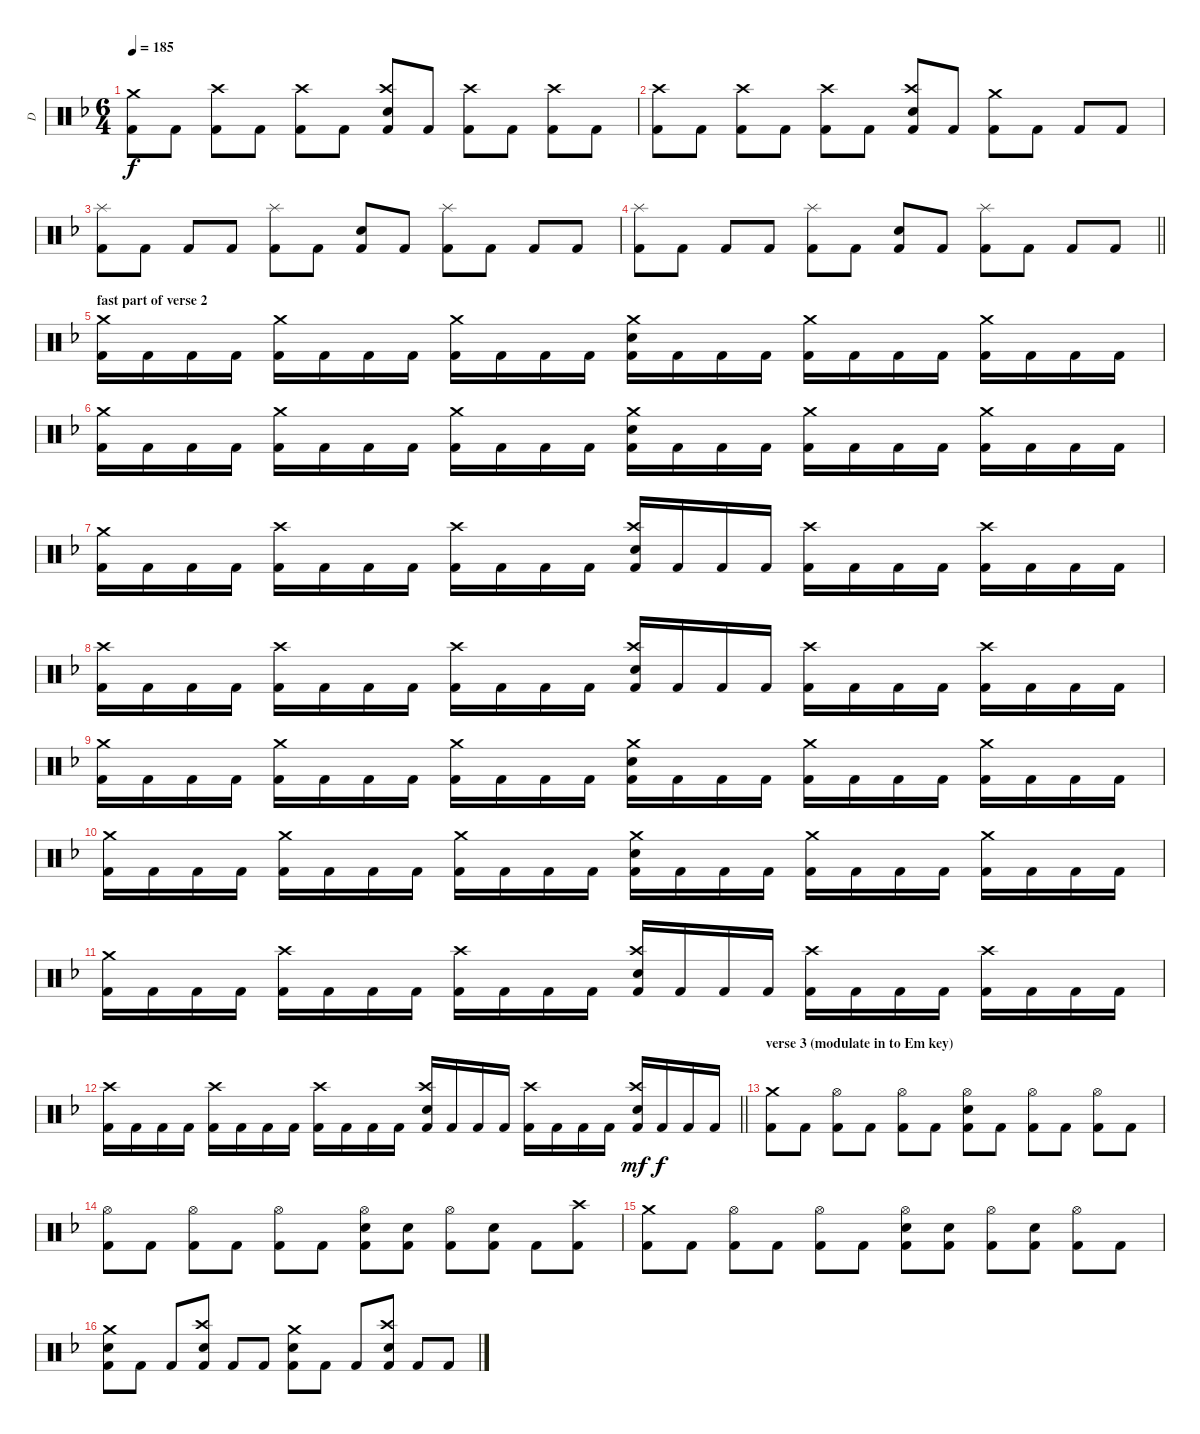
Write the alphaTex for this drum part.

\track ("D" "D") {instrument percussion}
\staff {score}
\articulation defaults
\ts (6 4)
\tempo 185
\clef neutral
\ks dminor
("Crash medium (hit)" "Kick (hit) 2").8{dy f} "Kick (hit) 2".8 ("Crash high (hit)" "Kick (hit) 2").8 "Kick (hit) 2".8 ("Crash high (hit)" "Kick (hit) 2").8 "Kick (hit) 2".8 ("Crash high (hit)" "Snare (hit) 2" "Kick (hit) 2").8 "Kick (hit) 2".8 ("Crash high (hit)" "Kick (hit) 2").8 "Kick (hit) 2".8 ("Crash high (hit)" "Kick (hit) 2").8 "Kick (hit) 2".8 |
("Crash high (hit)" "Kick (hit) 2").8 "Kick (hit) 2".8 ("Crash high (hit)" "Kick (hit) 2").8 "Kick (hit) 2".8 ("Crash high (hit)" "Kick (hit) 2").8 "Kick (hit) 2".8 ("Crash high (hit)" "Snare (hit) 2" "Kick (hit) 2").8 "Kick (hit) 2".8 ("Crash medium (hit)" "Kick (hit) 2").8 "Kick (hit) 2".8 "Kick (hit) 2".8 "Kick (hit) 2".8 |
("Splash (hit)" "Kick (hit) 2").8 "Kick (hit) 2".8 "Kick (hit) 2".8 "Kick (hit) 2".8 ("Splash (hit)" "Kick (hit) 2").8 "Kick (hit) 2".8 ("Snare (hit) 2" "Kick (hit) 2").8 "Kick (hit) 2".8 ("Splash (hit)" "Kick (hit) 2").8 "Kick (hit) 2".8 "Kick (hit) 2".8 "Kick (hit) 2".8 |
\barLineRight lightlight
("Splash (hit)" "Kick (hit) 2").8 "Kick (hit) 2".8 "Kick (hit) 2".8 "Kick (hit) 2".8 ("Splash (hit)" "Kick (hit) 2").8 "Kick (hit) 2".8 ("Snare (hit) 2" "Kick (hit) 2").8 "Kick (hit) 2".8 ("Splash (hit)" "Kick (hit) 2").8 "Kick (hit) 2".8 "Kick (hit) 2".8 "Kick (hit) 2".8 |
\section ("" "fast part of verse 2")
("Crash medium (hit)" "Kick (hit) 2").16 "Kick (hit) 2".16 "Kick (hit) 2".16 "Kick (hit) 2".16 ("Crash medium (hit)" "Kick (hit) 2").16 "Kick (hit) 2".16 "Kick (hit) 2".16 "Kick (hit) 2".16 ("Crash medium (hit)" "Kick (hit) 2").16 "Kick (hit) 2".16 "Kick (hit) 2".16 "Kick (hit) 2".16 ("Crash medium (hit)" "Snare (hit) 2" "Kick (hit) 2").16 "Kick (hit) 2".16 "Kick (hit) 2".16 "Kick (hit) 2".16 ("Crash medium (hit)" "Kick (hit) 2").16 "Kick (hit) 2".16 "Kick (hit) 2".16 "Kick (hit) 2".16 ("Crash medium (hit)" "Kick (hit) 2").16 "Kick (hit) 2".16 "Kick (hit) 2".16 "Kick (hit) 2".16 |
("Crash medium (hit)" "Kick (hit) 2").16 "Kick (hit) 2".16 "Kick (hit) 2".16 "Kick (hit) 2".16 ("Crash medium (hit)" "Kick (hit) 2").16 "Kick (hit) 2".16 "Kick (hit) 2".16 "Kick (hit) 2".16 ("Crash medium (hit)" "Kick (hit) 2").16 "Kick (hit) 2".16 "Kick (hit) 2".16 "Kick (hit) 2".16 ("Crash medium (hit)" "Snare (hit) 2" "Kick (hit) 2").16 "Kick (hit) 2".16 "Kick (hit) 2".16 "Kick (hit) 2".16 ("Crash medium (hit)" "Kick (hit) 2").16 "Kick (hit) 2".16 "Kick (hit) 2".16 "Kick (hit) 2".16 ("Crash medium (hit)" "Kick (hit) 2").16 "Kick (hit) 2".16 "Kick (hit) 2".16 "Kick (hit) 2".16 |
("Crash medium (hit)" "Kick (hit) 2").16 "Kick (hit) 2".16 "Kick (hit) 2".16 "Kick (hit) 2".16 ("Crash high (hit)" "Kick (hit) 2").16 "Kick (hit) 2".16 "Kick (hit) 2".16 "Kick (hit) 2".16 ("Crash high (hit)" "Kick (hit) 2").16 "Kick (hit) 2".16 "Kick (hit) 2".16 "Kick (hit) 2".16 ("Crash high (hit)" "Snare (hit) 2" "Kick (hit) 2").16 "Kick (hit) 2".16 "Kick (hit) 2".16 "Kick (hit) 2".16 ("Crash high (hit)" "Kick (hit) 2").16 "Kick (hit) 2".16 "Kick (hit) 2".16 "Kick (hit) 2".16 ("Crash high (hit)" "Kick (hit) 2").16 "Kick (hit) 2".16 "Kick (hit) 2".16 "Kick (hit) 2".16 |
("Crash high (hit)" "Kick (hit) 2").16 "Kick (hit) 2".16 "Kick (hit) 2".16 "Kick (hit) 2".16 ("Crash high (hit)" "Kick (hit) 2").16 "Kick (hit) 2".16 "Kick (hit) 2".16 "Kick (hit) 2".16 ("Crash high (hit)" "Kick (hit) 2").16 "Kick (hit) 2".16 "Kick (hit) 2".16 "Kick (hit) 2".16 ("Crash high (hit)" "Snare (hit) 2" "Kick (hit) 2").16 "Kick (hit) 2".16 "Kick (hit) 2".16 "Kick (hit) 2".16 ("Crash high (hit)" "Kick (hit) 2").16 "Kick (hit) 2".16 "Kick (hit) 2".16 "Kick (hit) 2".16 ("Crash high (hit)" "Kick (hit) 2").16 "Kick (hit) 2".16 "Kick (hit) 2".16 "Kick (hit) 2".16 |
("Crash medium (hit)" "Kick (hit) 2").16 "Kick (hit) 2".16 "Kick (hit) 2".16 "Kick (hit) 2".16 ("Crash medium (hit)" "Kick (hit) 2").16 "Kick (hit) 2".16 "Kick (hit) 2".16 "Kick (hit) 2".16 ("Crash medium (hit)" "Kick (hit) 2").16 "Kick (hit) 2".16 "Kick (hit) 2".16 "Kick (hit) 2".16 ("Crash medium (hit)" "Snare (hit) 2" "Kick (hit) 2").16 "Kick (hit) 2".16 "Kick (hit) 2".16 "Kick (hit) 2".16 ("Crash medium (hit)" "Kick (hit) 2").16 "Kick (hit) 2".16 "Kick (hit) 2".16 "Kick (hit) 2".16 ("Crash medium (hit)" "Kick (hit) 2").16 "Kick (hit) 2".16 "Kick (hit) 2".16 "Kick (hit) 2".16 |
("Crash medium (hit)" "Kick (hit) 2").16 "Kick (hit) 2".16 "Kick (hit) 2".16 "Kick (hit) 2".16 ("Crash medium (hit)" "Kick (hit) 2").16 "Kick (hit) 2".16 "Kick (hit) 2".16 "Kick (hit) 2".16 ("Crash medium (hit)" "Kick (hit) 2").16 "Kick (hit) 2".16 "Kick (hit) 2".16 "Kick (hit) 2".16 ("Crash medium (hit)" "Snare (hit) 2" "Kick (hit) 2").16 "Kick (hit) 2".16 "Kick (hit) 2".16 "Kick (hit) 2".16 ("Crash medium (hit)" "Kick (hit) 2").16 "Kick (hit) 2".16 "Kick (hit) 2".16 "Kick (hit) 2".16 ("Crash medium (hit)" "Kick (hit) 2").16 "Kick (hit) 2".16 "Kick (hit) 2".16 "Kick (hit) 2".16 |
("Crash medium (hit)" "Kick (hit) 2").16 "Kick (hit) 2".16 "Kick (hit) 2".16 "Kick (hit) 2".16 ("Crash high (hit)" "Kick (hit) 2").16 "Kick (hit) 2".16 "Kick (hit) 2".16 "Kick (hit) 2".16 ("Crash high (hit)" "Kick (hit) 2").16 "Kick (hit) 2".16 "Kick (hit) 2".16 "Kick (hit) 2".16 ("Crash high (hit)" "Snare (hit) 2" "Kick (hit) 2").16 "Kick (hit) 2".16 "Kick (hit) 2".16 "Kick (hit) 2".16 ("Crash high (hit)" "Kick (hit) 2").16 "Kick (hit) 2".16 "Kick (hit) 2".16 "Kick (hit) 2".16 ("Crash high (hit)" "Kick (hit) 2").16 "Kick (hit) 2".16 "Kick (hit) 2".16 "Kick (hit) 2".16 |
\barLineRight lightlight
("Crash high (hit)" "Kick (hit) 2").16 "Kick (hit) 2".16 "Kick (hit) 2".16 "Kick (hit) 2".16 ("Crash high (hit)" "Kick (hit) 2").16 "Kick (hit) 2".16 "Kick (hit) 2".16 "Kick (hit) 2".16 ("Crash high (hit)" "Kick (hit) 2").16 "Kick (hit) 2".16 "Kick (hit) 2".16 "Kick (hit) 2".16 ("Crash high (hit)" "Snare (hit) 2" "Kick (hit) 2").16 "Kick (hit) 2".16 "Kick (hit) 2".16 "Kick (hit) 2".16 ("Crash high (hit)" "Kick (hit) 2").16 "Kick (hit) 2".16 "Kick (hit) 2".16 "Kick (hit) 2".16 ("Crash high (hit)" "Snare (hit) 2" "Kick (hit) 2").16{dy mf} "Kick (hit) 2".16{dy f} "Kick (hit) 2".16 "Kick (hit) 2".16 |
\section ("" "verse 3 (modulate in to Em key)")
("Crash medium (hit)" "Kick (hit) 2").8 "Kick (hit) 2".8 ("Hi-Hat (open)" "Kick (hit) 2").8 "Kick (hit) 2".8 ("Hi-Hat (open)" "Kick (hit) 2").8 "Kick (hit) 2".8 ("Hi-Hat (open)" "Snare (hit) 2" "Kick (hit) 2").8 "Kick (hit) 2".8 ("Hi-Hat (open)" "Kick (hit) 2").8 "Kick (hit) 2".8 ("Hi-Hat (open)" "Kick (hit) 2").8 "Kick (hit) 2".8 |
("Hi-Hat (open)" "Kick (hit) 2").8 "Kick (hit) 2".8 ("Hi-Hat (open)" "Kick (hit) 2").8 "Kick (hit) 2".8 ("Hi-Hat (open)" "Kick (hit) 2").8 "Kick (hit) 2".8 ("Hi-Hat (open)" "Snare (hit) 2" "Kick (hit) 2").8 ("Snare (hit) 2" "Kick (hit) 2").8 ("Hi-Hat (open)" "Kick (hit) 2").8 ("Snare (hit) 2" "Kick (hit) 2").8 "Kick (hit) 2".8 ("Crash high (hit)" "Kick (hit) 2").8 |
("Crash medium (hit)" "Kick (hit) 2").8 "Kick (hit) 2".8 ("Hi-Hat (open)" "Kick (hit) 2").8 "Kick (hit) 2".8 ("Hi-Hat (open)" "Kick (hit) 2").8 "Kick (hit) 2".8 ("Hi-Hat (open)" "Snare (hit) 2" "Kick (hit) 2").8 ("Snare (hit) 2" "Kick (hit) 2").8 ("Hi-Hat (open)" "Kick (hit) 2").8 ("Snare (hit) 2" "Kick (hit) 2").8 ("Hi-Hat (open)" "Kick (hit) 2").8 "Kick (hit) 2".8 |
("Crash medium (hit)" "Snare (hit) 2" "Kick (hit) 2").8 "Kick (hit) 2".8 "Kick (hit) 2".8 ("Crash high (hit)" "Snare (hit) 2" "Kick (hit) 2").8 "Kick (hit) 2".8 "Kick (hit) 2".8 ("Crash medium (hit)" "Snare (hit) 2" "Kick (hit) 2").8 "Kick (hit) 2".8 "Kick (hit) 2".8 ("Crash high (hit)" "Snare (hit) 2" "Kick (hit) 2").8 "Kick (hit) 2".8 "Kick (hit) 2".8
